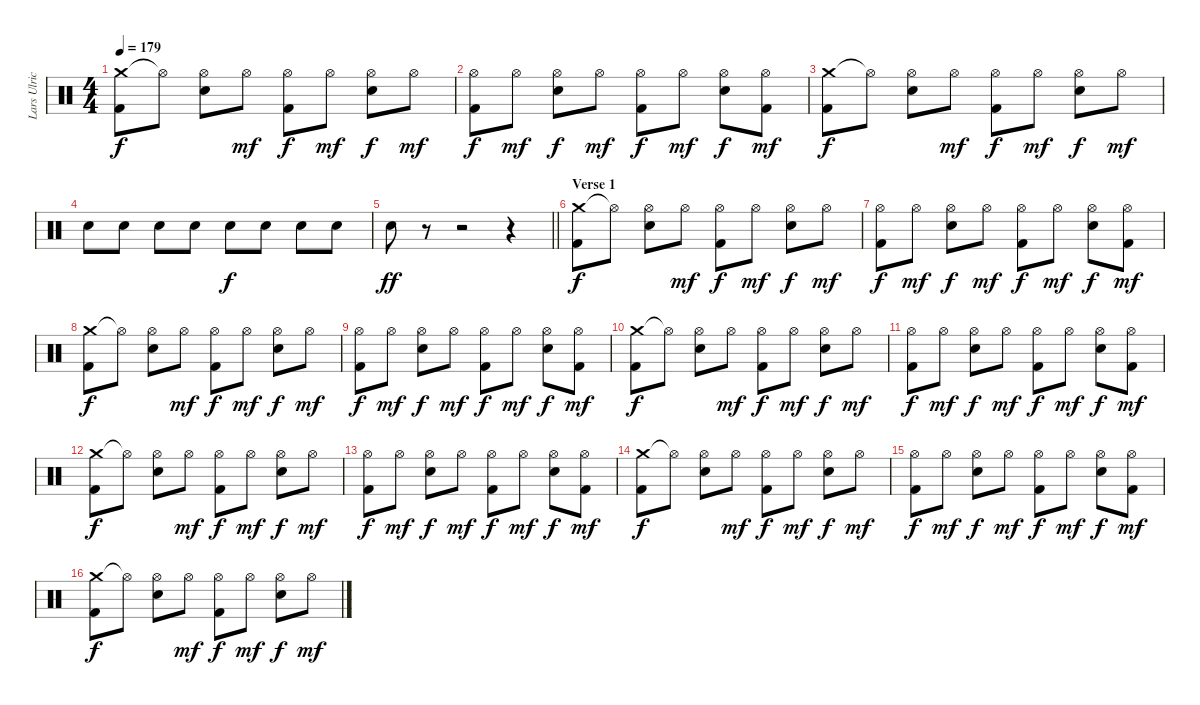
\track ("Lars Ulrich" "Lars Ulric") {instrument percussion}
\staff {score}
\articulation defaults
\ts (4 4)
\tempo 179
\clef neutral
\ks c
("Crash medium (hit)" "Kick (hit) 2").8{dy f} "Hi-Hat (open)"{t}.8 ("Hi-Hat (open)" "Electric Snare (hit)").8 "Hi-Hat (open)".8{dy mf} ("Hi-Hat (open)" "Kick (hit) 2").8{dy f} "Hi-Hat (open)".8{dy mf} ("Hi-Hat (open)" "Electric Snare (hit)").8{dy f} "Hi-Hat (open)".8{dy mf} |
("Hi-Hat (open)" "Kick (hit) 2").8{dy f} "Hi-Hat (open)".8{dy mf} ("Hi-Hat (open)" "Electric Snare (hit)").8{dy f} "Hi-Hat (open)".8{dy mf} ("Hi-Hat (open)" "Kick (hit) 2").8{dy f} "Hi-Hat (open)".8{dy mf} ("Hi-Hat (open)" "Electric Snare (hit)").8{dy f} ("Hi-Hat (open)" "Kick (hit) 2").8{dy mf} |
("Crash medium (hit)" "Kick (hit) 2").8{dy f} "Hi-Hat (open)"{t}.8 ("Hi-Hat (open)" "Electric Snare (hit)").8 "Hi-Hat (open)".8{dy mf} ("Hi-Hat (open)" "Kick (hit) 2").8{dy f} "Hi-Hat (open)".8{dy mf} ("Hi-Hat (open)" "Electric Snare (hit)").8{dy f} "Hi-Hat (open)".8{dy mf} |
"Electric Snare (hit)".8 "Electric Snare (hit)".8 "Electric Snare (hit)".8 "Electric Snare (hit)".8 "Electric Snare (hit)".8{dy f} "Electric Snare (hit)".8 "Electric Snare (hit)".8 "Electric Snare (hit)".8 |
\barLineRight lightlight "Electric Snare (hit)".8{dy ff}
r.8 r.2 r.4 |
\section ("" "Verse 1")
("Crash medium (hit)" "Kick (hit) 2").8{dy f} "Hi-Hat (open)"{t}.8 ("Hi-Hat (open)" "Electric Snare (hit)").8 "Hi-Hat (open)".8{dy mf} ("Hi-Hat (open)" "Kick (hit) 2").8{dy f} "Hi-Hat (open)".8{dy mf} ("Hi-Hat (open)" "Electric Snare (hit)").8{dy f} "Hi-Hat (open)".8{dy mf} |
("Hi-Hat (open)" "Kick (hit) 2").8{dy f} "Hi-Hat (open)".8{dy mf} ("Hi-Hat (open)" "Electric Snare (hit)").8{dy f} "Hi-Hat (open)".8{dy mf} ("Hi-Hat (open)" "Kick (hit) 2").8{dy f} "Hi-Hat (open)".8{dy mf} ("Hi-Hat (open)" "Electric Snare (hit)").8{dy f} ("Hi-Hat (open)" "Kick (hit) 2").8{dy mf} |
("Crash medium (hit)" "Kick (hit) 2").8{dy f} "Hi-Hat (open)"{t}.8 ("Hi-Hat (open)" "Electric Snare (hit)").8 "Hi-Hat (open)".8{dy mf} ("Hi-Hat (open)" "Kick (hit) 2").8{dy f} "Hi-Hat (open)".8{dy mf} ("Hi-Hat (open)" "Electric Snare (hit)").8{dy f} "Hi-Hat (open)".8{dy mf} |
("Hi-Hat (open)" "Kick (hit) 2").8{dy f} "Hi-Hat (open)".8{dy mf} ("Hi-Hat (open)" "Electric Snare (hit)").8{dy f} "Hi-Hat (open)".8{dy mf} ("Hi-Hat (open)" "Kick (hit) 2").8{dy f} "Hi-Hat (open)".8{dy mf} ("Hi-Hat (open)" "Electric Snare (hit)").8{dy f} ("Hi-Hat (open)" "Kick (hit) 2").8{dy mf} |
("Crash medium (hit)" "Kick (hit) 2").8{dy f} "Hi-Hat (open)"{t}.8 ("Hi-Hat (open)" "Electric Snare (hit)").8 "Hi-Hat (open)".8{dy mf} ("Hi-Hat (open)" "Kick (hit) 2").8{dy f} "Hi-Hat (open)".8{dy mf} ("Hi-Hat (open)" "Electric Snare (hit)").8{dy f} "Hi-Hat (open)".8{dy mf} |
("Hi-Hat (open)" "Kick (hit) 2").8{dy f} "Hi-Hat (open)".8{dy mf} ("Hi-Hat (open)" "Electric Snare (hit)").8{dy f} "Hi-Hat (open)".8{dy mf} ("Hi-Hat (open)" "Kick (hit) 2").8{dy f} "Hi-Hat (open)".8{dy mf} ("Hi-Hat (open)" "Electric Snare (hit)").8{dy f} ("Hi-Hat (open)" "Kick (hit) 2").8{dy mf} |
("Crash medium (hit)" "Kick (hit) 2").8{dy f} "Hi-Hat (open)"{t}.8 ("Hi-Hat (open)" "Electric Snare (hit)").8 "Hi-Hat (open)".8{dy mf} ("Hi-Hat (open)" "Kick (hit) 2").8{dy f} "Hi-Hat (open)".8{dy mf} ("Hi-Hat (open)" "Electric Snare (hit)").8{dy f} "Hi-Hat (open)".8{dy mf} |
("Hi-Hat (open)" "Kick (hit) 2").8{dy f} "Hi-Hat (open)".8{dy mf} ("Hi-Hat (open)" "Electric Snare (hit)").8{dy f} "Hi-Hat (open)".8{dy mf} ("Hi-Hat (open)" "Kick (hit) 2").8{dy f} "Hi-Hat (open)".8{dy mf} ("Hi-Hat (open)" "Electric Snare (hit)").8{dy f} ("Hi-Hat (open)" "Kick (hit) 2").8{dy mf} |
("Crash medium (hit)" "Kick (hit) 2").8{dy f} "Hi-Hat (open)"{t}.8 ("Hi-Hat (open)" "Electric Snare (hit)").8 "Hi-Hat (open)".8{dy mf} ("Hi-Hat (open)" "Kick (hit) 2").8{dy f} "Hi-Hat (open)".8{dy mf} ("Hi-Hat (open)" "Electric Snare (hit)").8{dy f} "Hi-Hat (open)".8{dy mf} |
("Hi-Hat (open)" "Kick (hit) 2").8{dy f} "Hi-Hat (open)".8{dy mf} ("Hi-Hat (open)" "Electric Snare (hit)").8{dy f} "Hi-Hat (open)".8{dy mf} ("Hi-Hat (open)" "Kick (hit) 2").8{dy f} "Hi-Hat (open)".8{dy mf} ("Hi-Hat (open)" "Electric Snare (hit)").8{dy f} ("Hi-Hat (open)" "Kick (hit) 2").8{dy mf} |
("Crash medium (hit)" "Kick (hit) 2").8{dy f} "Hi-Hat (open)"{t}.8 ("Hi-Hat (open)" "Electric Snare (hit)").8 "Hi-Hat (open)".8{dy mf} ("Hi-Hat (open)" "Kick (hit) 2").8{dy f} "Hi-Hat (open)".8{dy mf} ("Hi-Hat (open)" "Electric Snare (hit)").8{dy f} "Hi-Hat (open)".8{dy mf}
